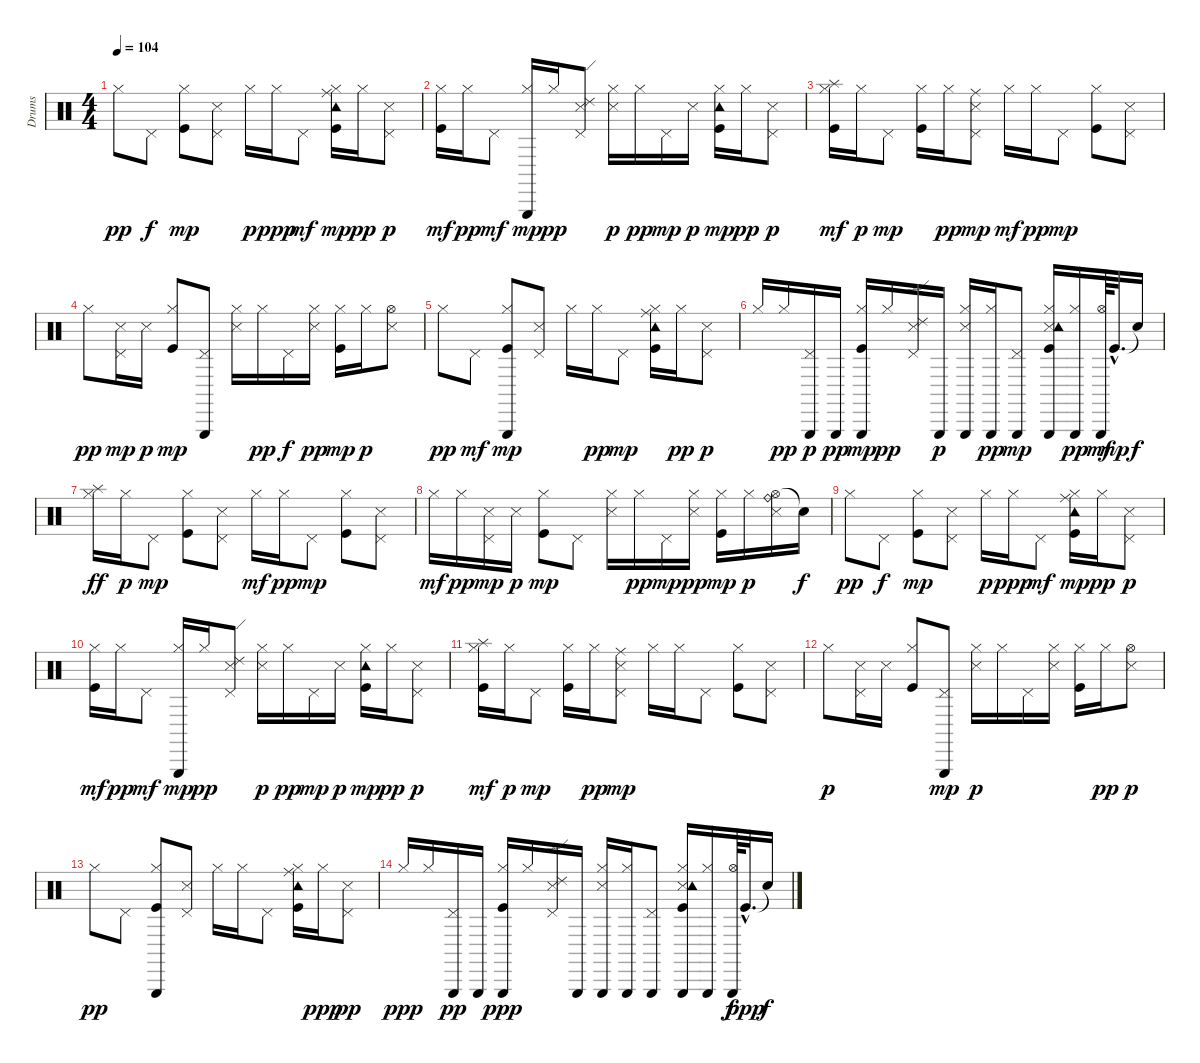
\track ("Drums" "Drums") {instrument percussion}
\staff {score}
\articulation defaults
\ts (4 4)
\tempo 104
\clef neutral
\ks c "Hi-Hat (closed)".8{dy pp} "Pedal Hi-Hat (hit)".8{dy f}
("Hi-Hat (closed)" "Kick (hit)").8{dy mp} ("Pedal Hi-Hat (hit)" "Snare (side stick) 3").8 "Hi-Hat (closed)".16{dy p} "Hi-Hat (closed)".16{dy ppp} "Pedal Hi-Hat (hit)".8{dy mf} ("Hi-Hat (closed)" "Ride (middle)" "Tambourine (hit)" "Kick (hit)").16{dy mp} "Hi-Hat (closed)".16{dy pp} ("Pedal Hi-Hat (hit)" "Snare (side stick) 3").8{dy p} |
("Hi-Hat (closed)" "Kick (hit)").16{dy mf} "Hi-Hat (closed)".16{dy pp} "Pedal Hi-Hat (hit)".8{dy mf} ("Hi-Hat (closed)" "Triangle (hit)").16{dy mp} "Hi-Hat (closed)".16{dy pp} ("Pedal Hi-Hat (hit)" "Ride (edge) 2" "Snare (side stick) 3").8 ("Hi-Hat (closed)" "Snare (side stick) 3").16{dy p} "Hi-Hat (closed)".16{dy pp} "Pedal Hi-Hat (hit)".16{dy mp} "Snare (side stick) 3".16{dy p} ("Hi-Hat (closed)" "Tambourine (hit)" "Kick (hit)").16{dy mp} "Hi-Hat (closed)".16{dy pp} ("Pedal Hi-Hat (hit)" "Snare (side stick) 3").8{dy p} |
("Hi-Hat (closed)" "Splash (hit)" "Kick (hit)").16{dy mf} "Hi-Hat (closed)".16{dy p} "Pedal Hi-Hat (hit)".8{dy mp} ("Hi-Hat (closed)" "Kick (hit)").16 "Hi-Hat (closed)".16{dy pp} ("Pedal Hi-Hat (hit)" "Ride (middle)" "Snare (side stick) 3").8{dy mp} "Hi-Hat (closed)".16{dy mf} "Hi-Hat (closed)".16{dy pp} "Pedal Hi-Hat (hit)".8{dy mp} ("Hi-Hat (closed)" "Kick (hit)").8 ("Pedal Hi-Hat (hit)" "Snare (side stick) 3").8 |
"Hi-Hat (closed)".8{dy pp} ("Pedal Hi-Hat (hit)" "Snare (side stick) 3").16{dy mp} "Snare (side stick) 3".16{dy p} ("Hi-Hat (closed)" "Kick (hit)").8{dy mp} ("Pedal Hi-Hat (hit)" "Triangle (hit)").8 ("Hi-Hat (closed)" "Snare (side stick) 3").16 "Hi-Hat (closed)".16{dy pp} "Pedal Hi-Hat (hit)".16{dy f} ("Hi-Hat (closed)" "Snare (side stick) 3").16{dy pp} ("Hi-Hat (closed)" "Kick (hit)").16{dy mp} "Hi-Hat (closed)".16{dy p} ("Hi-Hat (open)" "Snare (side stick) 3").8 |
"Hi-Hat (closed)".8{dy pp} "Pedal Hi-Hat (hit)".8{dy mf} ("Hi-Hat (closed)" "Triangle (hit)" "Kick (hit)").8{dy mp} ("Pedal Hi-Hat (hit)" "Snare (side stick) 3").8 "Hi-Hat (closed)".16 "Hi-Hat (closed)".16{dy pp} "Pedal Hi-Hat (hit)".8{dy mp} ("Hi-Hat (closed)" "Ride (middle)" "Tambourine (hit)" "Kick (hit)").16 "Hi-Hat (closed)".16{dy pp} ("Pedal Hi-Hat (hit)" "Snare (side stick) 3").8{dy p} |
"Hi-Hat (closed)".16 "Hi-Hat (closed)".16{dy pp} ("Pedal Hi-Hat (hit)" "Triangle (hit)").16{dy p} "Triangle (hit)".16{dy pp} ("Hi-Hat (closed)" "Triangle (hit)" "Kick (hit)").16{dy mp} "Hi-Hat (closed)".16{dy pp} ("Pedal Hi-Hat (hit)" "Ride (edge) 2" "Snare (side stick) 3").16 "Triangle (hit)".16{dy p} ("Hi-Hat (closed)" "Snare (side stick) 3" "Triangle (hit)").16 ("Hi-Hat (closed)" "Triangle (hit)").16{dy pp} ("Pedal Hi-Hat (hit)" "Triangle (hit)").8{dy mp} ("Hi-Hat (closed)" "Snare (side stick) 3" "Tambourine (hit)" "Triangle (hit)" "Kick (hit)").16 ("Hi-Hat (closed)" "Triangle (hit)").16{dy pp} ("Hi-Hat (open)" "Triangle (hit)").64{dy mf} "Kick (hit)"{hac}.32{d dy mp} "Snare (hit)"{t}.16{dy f} |
("Hi-Hat (closed)" "Splash (hit)").16{dy ff} "Hi-Hat (closed)".16{dy p} "Pedal Hi-Hat (hit)".8{dy mp} ("Hi-Hat (closed)" "Kick (hit)").8 ("Pedal Hi-Hat (hit)" "Snare (side stick) 3").8 "Hi-Hat (closed)".16{dy mf} "Hi-Hat (closed)".16{dy pp} "Pedal Hi-Hat (hit)".8{dy mp} ("Hi-Hat (closed)" "Kick (hit)").8 ("Pedal Hi-Hat (hit)" "Snare (side stick) 3").8 |
"Hi-Hat (closed)".16{dy mf} "Hi-Hat (closed)".16{dy pp} ("Pedal Hi-Hat (hit)" "Snare (side stick) 3").16{dy mp} "Snare (side stick) 3".16{dy p} ("Hi-Hat (closed)" "Kick (hit)").8{dy mp} "Pedal Hi-Hat (hit)".8 ("Hi-Hat (closed)" "Snare (side stick) 3").16 "Hi-Hat (closed)".16{dy pp} "Pedal Hi-Hat (hit)".16{dy mp} ("Hi-Hat (closed)" "Snare (side stick) 3").16{dy pp} ("Hi-Hat (closed)" "Kick (hit)").16{dy mp} "Hi-Hat (closed)".16{dy p} ("Hi-Hat (open)" "Snare (side stick) 3" "Ride (bell)").16 "Snare (hit)"{t}.16{dy f} |
"Hi-Hat (closed)".8{dy pp} "Pedal Hi-Hat (hit)".8{dy f} ("Hi-Hat (closed)" "Kick (hit)").8{dy mp} ("Pedal Hi-Hat (hit)" "Snare (side stick) 3").8 "Hi-Hat (closed)".16{dy p} "Hi-Hat (closed)".16{dy ppp} "Pedal Hi-Hat (hit)".8{dy mf} ("Hi-Hat (closed)" "Ride (middle)" "Tambourine (hit)" "Kick (hit)").16{dy mp} "Hi-Hat (closed)".16{dy pp} ("Pedal Hi-Hat (hit)" "Snare (side stick) 3").8{dy p} |
("Hi-Hat (closed)" "Kick (hit)").16{dy mf} "Hi-Hat (closed)".16{dy pp} "Pedal Hi-Hat (hit)".8{dy mf} ("Hi-Hat (closed)" "Triangle (hit)").16{dy mp} "Hi-Hat (closed)".16{dy pp} ("Pedal Hi-Hat (hit)" "Ride (edge) 2" "Snare (side stick) 3").8 ("Hi-Hat (closed)" "Snare (side stick) 3").16{dy p} "Hi-Hat (closed)".16{dy pp} "Pedal Hi-Hat (hit)".16{dy mp} "Snare (side stick) 3".16{dy p} ("Hi-Hat (closed)" "Tambourine (hit)" "Kick (hit)").16{dy mp} "Hi-Hat (closed)".16{dy pp} ("Pedal Hi-Hat (hit)" "Snare (side stick) 3").8{dy p} |
("Hi-Hat (closed)" "Splash (hit)" "Kick (hit)").16{dy mf} "Hi-Hat (closed)".16{dy p} "Pedal Hi-Hat (hit)".8{dy mp} ("Hi-Hat (closed)" "Kick (hit)").16 "Hi-Hat (closed)".16{dy pp} ("Pedal Hi-Hat (hit)" "Ride (middle)" "Snare (side stick) 3").8{dy mp} "Hi-Hat (closed)".16 "Hi-Hat (closed)".16 "Pedal Hi-Hat (hit)".8 ("Hi-Hat (closed)" "Kick (hit)").8 ("Pedal Hi-Hat (hit)" "Snare (side stick) 3").8 |
"Hi-Hat (closed)".8{dy p} ("Pedal Hi-Hat (hit)" "Snare (side stick) 3").16 "Snare (side stick) 3".16 ("Hi-Hat (closed)" "Kick (hit)").8 ("Pedal Hi-Hat (hit)" "Triangle (hit)").8{dy mp} ("Hi-Hat (closed)" "Snare (side stick) 3").16{dy p} "Hi-Hat (closed)".16 "Pedal Hi-Hat (hit)".16 ("Hi-Hat (closed)" "Snare (side stick) 3").16 ("Hi-Hat (closed)" "Kick (hit)").16 "Hi-Hat (closed)".16{dy pp} ("Hi-Hat (open)" "Snare (side stick) 3").8{dy p} |
"Hi-Hat (closed)".8{dy pp} "Pedal Hi-Hat (hit)".8 ("Hi-Hat (closed)" "Triangle (hit)" "Kick (hit)").8 ("Pedal Hi-Hat (hit)" "Snare (side stick) 3").8 "Hi-Hat (closed)".16 "Hi-Hat (closed)".16 "Pedal Hi-Hat (hit)".8 ("Hi-Hat (closed)" "Ride (middle)" "Tambourine (hit)" "Kick (hit)").16 "Hi-Hat (closed)".16{dy ppp} ("Pedal Hi-Hat (hit)" "Snare (side stick) 3").8{dy pp} |
"Hi-Hat (closed)".16{dy ppp} "Hi-Hat (closed)".16 ("Pedal Hi-Hat (hit)" "Triangle (hit)").16{dy pp} "Triangle (hit)".16 ("Hi-Hat (closed)" "Triangle (hit)" "Kick (hit)").16{dy ppp} "Hi-Hat (closed)".16 ("Pedal Hi-Hat (hit)" "Ride (edge) 2" "Snare (side stick) 3").16 "Triangle (hit)".16 ("Hi-Hat (closed)" "Snare (side stick) 3" "Triangle (hit)").16 ("Hi-Hat (closed)" "Triangle (hit)").16 ("Pedal Hi-Hat (hit)" "Triangle (hit)").8 ("Hi-Hat (closed)" "Snare (side stick) 3" "Tambourine (hit)" "Triangle (hit)" "Kick (hit)").16 ("Hi-Hat (closed)" "Triangle (hit)").16 ("Hi-Hat (open)" "Triangle (hit)").64{dy f} "Kick (hit)"{hac}.32{d dy ppp} "Snare (hit)"{t}.16{dy f}
